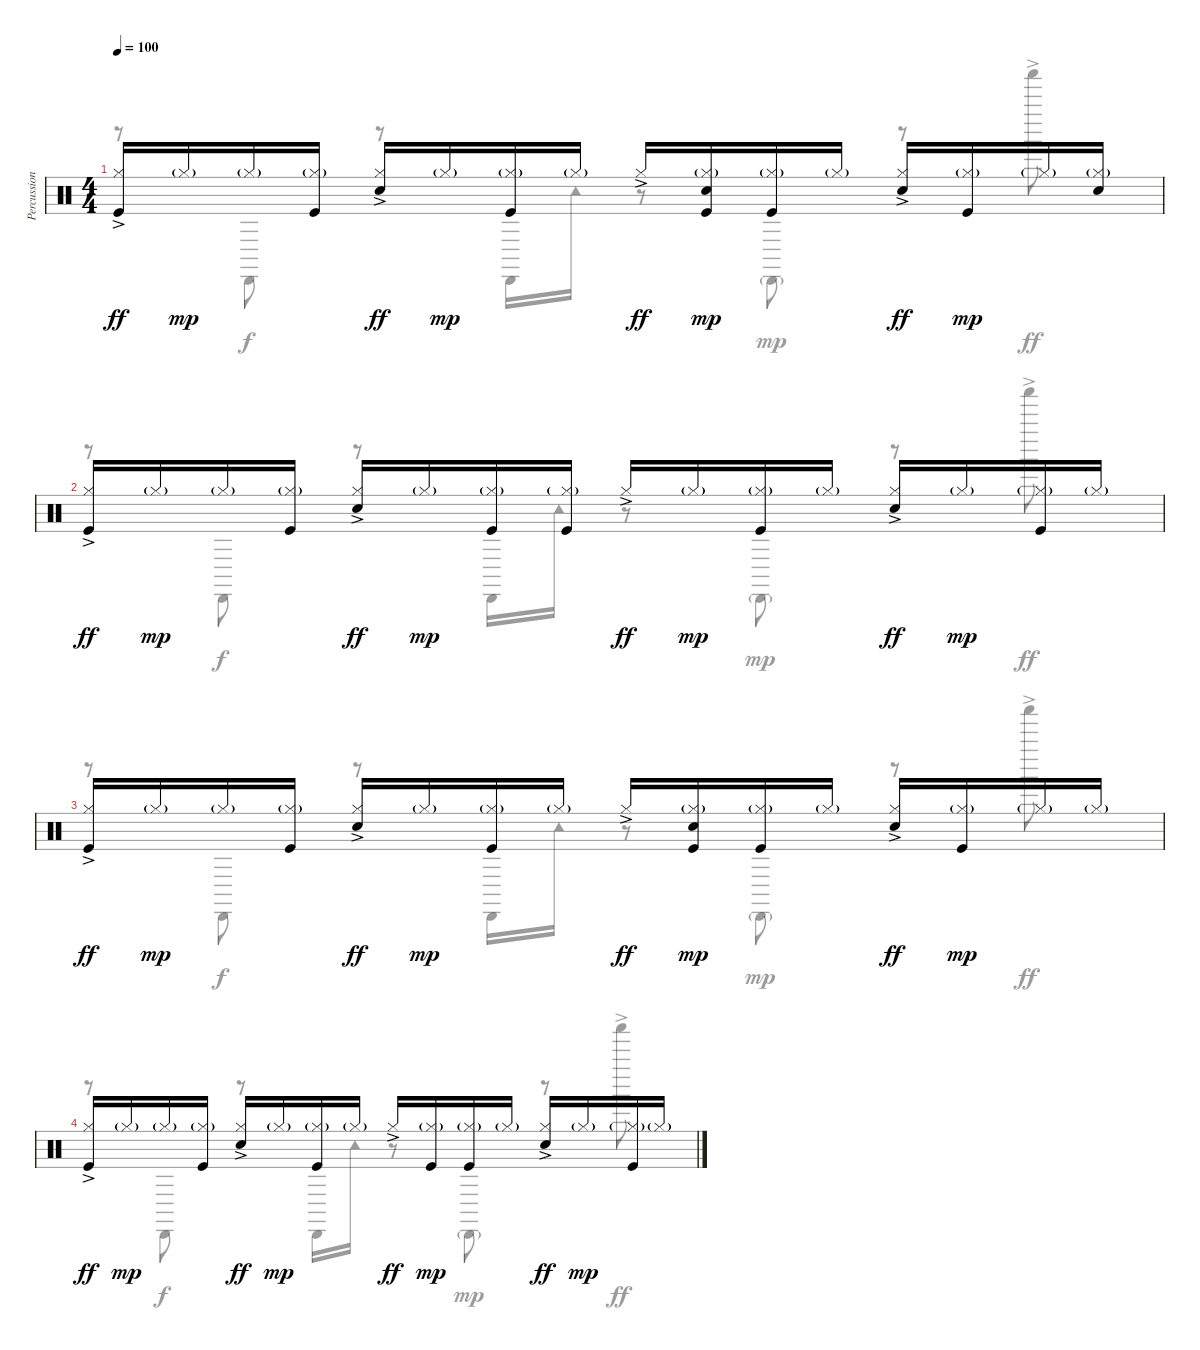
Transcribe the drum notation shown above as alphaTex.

\track ("Percussions" "Percussion") {instrument percussion}
\staff {score}
\articulation defaults
\voice
\ts (4 4)
\tempo 100
\clef neutral
\ks c
("Kick (hit)" "Hi-Hat (closed)"{ac}).16{dy ff} "Hi-Hat (closed)"{g}.16{dy mp} "Hi-Hat (closed)"{g}.16 ("Kick (hit)" "Hi-Hat (closed)"{g}).16 ("Electric Snare (hit)" "Hi-Hat (closed)"{ac}).16{dy ff} "Hi-Hat (closed)"{g}.16{dy mp} ("Kick (hit)" "Hi-Hat (closed)"{g}).16 "Hi-Hat (closed)"{g}.16 "Hi-Hat (closed)"{ac}.16{dy ff} ("Kick (hit)" "Electric Snare (hit)" "Hi-Hat (closed)"{g}).16{dy mp} ("Kick (hit)" "Hi-Hat (closed)"{g}).16 "Hi-Hat (closed)"{g}.16 ("Snare (hit) 2" "Hi-Hat (closed)"{ac}).16{dy ff} ("Kick (hit)" "Hi-Hat (closed)"{g}).16{dy mp} "Hi-Hat (closed)"{g}.16 ("Snare (hit) 2" "Hi-Hat (closed)"{g}).16 |
("Kick (hit)" "Hi-Hat (closed)"{ac}).16{dy ff} "Hi-Hat (closed)"{g}.16{dy mp} "Hi-Hat (closed)"{g}.16 ("Kick (hit)" "Hi-Hat (closed)"{g}).16 ("Electric Snare (hit)" "Hi-Hat (closed)"{ac}).16{dy ff} "Hi-Hat (closed)"{g}.16{dy mp} ("Kick (hit)" "Hi-Hat (closed)"{g}).16 ("Kick (hit)" "Hi-Hat (closed)"{g}).16 "Hi-Hat (closed)"{ac}.16{dy ff} "Hi-Hat (closed)"{g}.16{dy mp} ("Kick (hit)" "Hi-Hat (closed)"{g}).16 "Hi-Hat (closed)"{g}.16 ("Snare (hit) 2" "Hi-Hat (closed)"{ac}).16{dy ff} "Hi-Hat (closed)"{g}.16{dy mp} ("Kick (hit)" "Hi-Hat (closed)"{g}).16 "Hi-Hat (closed)"{g}.16 |
("Kick (hit)" "Hi-Hat (closed)"{ac}).16{dy ff} "Hi-Hat (closed)"{g}.16{dy mp} "Hi-Hat (closed)"{g}.16 ("Kick (hit)" "Hi-Hat (closed)"{g}).16 ("Electric Snare (hit)" "Hi-Hat (closed)"{ac}).16{dy ff} "Hi-Hat (closed)"{g}.16{dy mp} ("Kick (hit)" "Hi-Hat (closed)"{g}).16 "Hi-Hat (closed)"{g}.16 "Hi-Hat (closed)"{ac}.16{dy ff} ("Kick (hit)" "Electric Snare (hit)" "Hi-Hat (closed)"{g}).16{dy mp} ("Kick (hit)" "Hi-Hat (closed)"{g}).16 "Hi-Hat (closed)"{g}.16 ("Snare (hit) 2" "Hi-Hat (closed)"{ac}).16{dy ff} ("Kick (hit)" "Hi-Hat (closed)"{g}).16{dy mp} "Hi-Hat (closed)"{g}.16 "Hi-Hat (closed)"{g}.16 |
("Kick (hit)" "Hi-Hat (closed)"{ac}).16{dy ff} "Hi-Hat (closed)"{g}.16{dy mp} "Hi-Hat (closed)"{g}.16 ("Kick (hit)" "Hi-Hat (closed)"{g}).16 ("Electric Snare (hit)" "Hi-Hat (closed)"{ac}).16{dy ff} "Hi-Hat (closed)"{g}.16{dy mp} ("Kick (hit)" "Hi-Hat (closed)"{g}).16 "Hi-Hat (closed)"{g}.16 "Hi-Hat (closed)"{ac}.16{dy ff} ("Kick (hit)" "Hi-Hat (closed)"{g}).16{dy mp} ("Kick (hit)" "Hi-Hat (closed)"{g}).16 "Hi-Hat (closed)"{g}.16 ("Snare (hit) 2" "Hi-Hat (closed)"{ac}).16{dy ff} "Hi-Hat (closed)"{g}.16{dy mp} ("Kick (hit)" "Hi-Hat (closed)"{g}).16 "Hi-Hat (closed)"{g}.16
\voice
\clef neutral
\ottava regular
\simile none
\ks c
r.8{dy ff} "Cabasa (hit)".8{dy f} r.8 "Cabasa (hit)".16 "Tambourine (hit)".16 r.8 "Cabasa (hit)"{g}.8{dy mp} r.8 "Shaker (hit)"{ac}.8{dy ff} |
r.8 "Cabasa (hit)".8{dy f} r.8 "Cabasa (hit)".16 "Tambourine (hit)".16 r.8 "Cabasa (hit)"{g}.8{dy mp} r.8 "Shaker (hit)"{ac}.8{dy ff} |
r.8 "Cabasa (hit)".8{dy f} r.8 "Cabasa (hit)".16 "Tambourine (hit)".16 r.8 "Cabasa (hit)"{g}.8{dy mp} r.8 "Shaker (hit)"{ac}.8{dy ff} |
r.8 "Cabasa (hit)".8{dy f} r.8 "Cabasa (hit)".16 "Tambourine (hit)".16 r.8 "Cabasa (hit)"{g}.8{dy mp} r.8 "Shaker (hit)"{ac}.8{dy ff}
